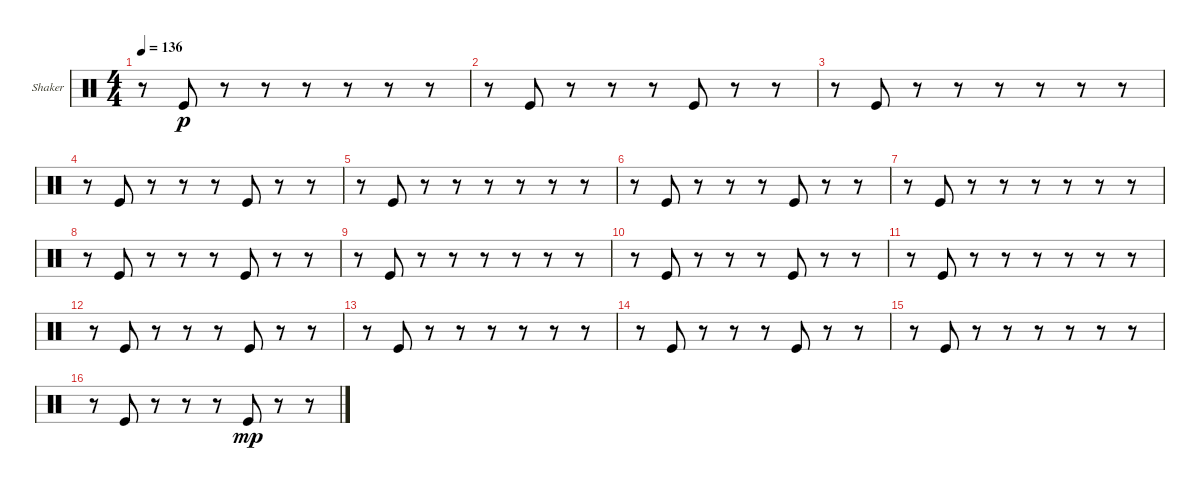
\bracketExtendMode groupsimilarinstruments
\firstSystemTrackNameOrientation horizontal
\otherSystemsTrackNameOrientation horizontal
\track ("Shaker" "Shaker") {instrument percussion}
\staff {score}
\articulation defaults
\ts (4 4)
\tempo 136
\clef neutral
\ks c
r.8{dy p} "Kick (hit)".8 r.8 r.8 r.8 r.8 r.8 r.8 |
r.8 "Kick (hit)".8 r.8 r.8 r.8 "Kick (hit)".8 r.8 r.8 |
r.8 "Kick (hit)".8 r.8 r.8 r.8 r.8 r.8 r.8 |
r.8 "Kick (hit)".8 r.8 r.8 r.8 "Kick (hit)".8 r.8 r.8 |
r.8 "Kick (hit)".8 r.8 r.8 r.8 r.8 r.8 r.8 |
r.8 "Kick (hit)".8 r.8 r.8 r.8 "Kick (hit)".8 r.8 r.8 |
r.8 "Kick (hit)".8 r.8 r.8 r.8 r.8 r.8 r.8 |
r.8 "Kick (hit)".8 r.8 r.8 r.8 "Kick (hit)".8 r.8 r.8 |
r.8 "Kick (hit)".8 r.8 r.8 r.8 r.8 r.8 r.8 |
r.8 "Kick (hit)".8 r.8 r.8 r.8 "Kick (hit)".8 r.8 r.8 |
r.8 "Kick (hit)".8 r.8 r.8 r.8 r.8 r.8 r.8 |
r.8 "Kick (hit)".8 r.8 r.8 r.8 "Kick (hit)".8 r.8 r.8 |
r.8 "Kick (hit)".8 r.8 r.8 r.8 r.8 r.8 r.8 |
r.8 "Kick (hit)".8 r.8 r.8 r.8 "Kick (hit)".8 r.8 r.8 |
r.8 "Kick (hit)".8 r.8 r.8 r.8 r.8 r.8 r.8 |
r.8 "Kick (hit)".8 r.8 r.8 r.8 "Kick (hit)".8{dy mp} r.8 r.8
